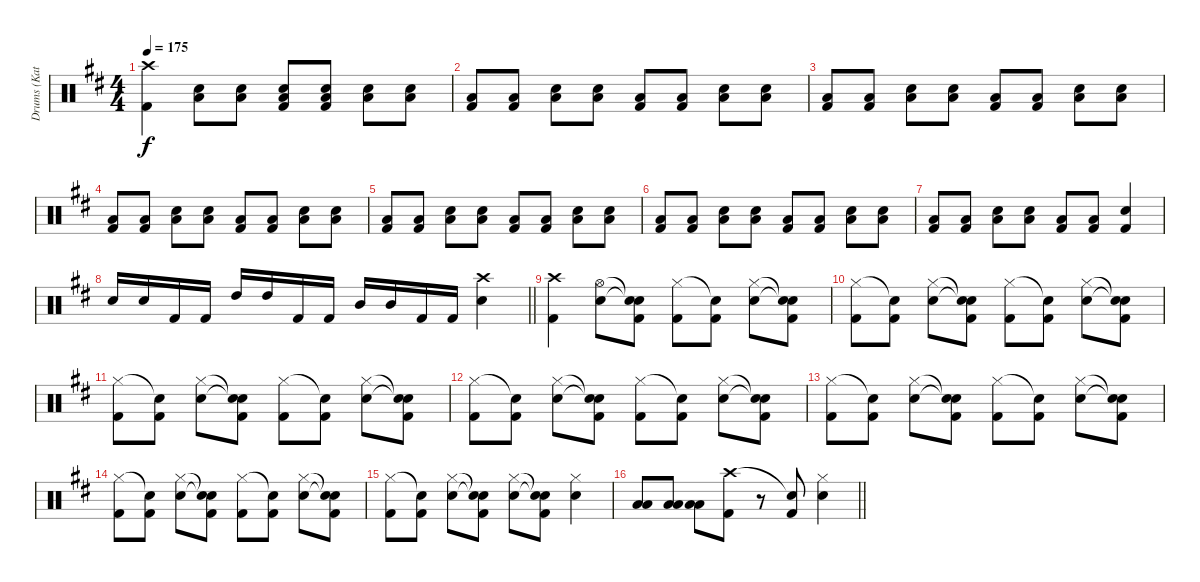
\track ("Drums (Katsuji)" "Drums (Kat") {instrument percussion}
\staff {score}
\articulation defaults
\ts (4 4)
\tempo 175
\clef neutral
\ks d
("Crash high (hit)" "Kick (hit) 2").4{dy f} ("Snare (hit) 2" "Low Tom (hit)").8 ("Snare (hit) 2" "Low Tom (hit)").8 ("Snare (hit) 2" "Low Tom (hit)" "Kick (hit) 2").8 ("Snare (hit) 2" "Low Tom (hit)" "Kick (hit) 2").8 ("Snare (hit) 2" "Low Tom (hit)").8 ("Snare (hit) 2" "Low Tom (hit)").8 |
("Low Tom (hit)" "Kick (hit) 2").8 ("Low Tom (hit)" "Kick (hit) 2").8 ("Snare (hit) 2" "Low Tom (hit)").8 ("Snare (hit) 2" "Low Tom (hit)").8 ("Low Tom (hit)" "Kick (hit) 2").8 ("Low Tom (hit)" "Kick (hit) 2").8 ("Snare (hit) 2" "Low Tom (hit)").8 ("Snare (hit) 2" "Low Tom (hit)").8 |
("Low Tom (hit)" "Kick (hit) 2").8 ("Low Tom (hit)" "Kick (hit) 2").8 ("Snare (hit) 2" "Low Tom (hit)").8 ("Snare (hit) 2" "Low Tom (hit)").8 ("Low Tom (hit)" "Kick (hit) 2").8 ("Low Tom (hit)" "Kick (hit) 2").8 ("Snare (hit) 2" "Low Tom (hit)").8 ("Snare (hit) 2" "Low Tom (hit)").8 |
("Low Tom (hit)" "Kick (hit) 2").8 ("Low Tom (hit)" "Kick (hit) 2").8 ("Snare (hit) 2" "Low Tom (hit)").8 ("Snare (hit) 2" "Low Tom (hit)").8 ("Low Tom (hit)" "Kick (hit) 2").8 ("Low Tom (hit)" "Kick (hit) 2").8 ("Snare (hit) 2" "Low Tom (hit)").8 ("Snare (hit) 2" "Low Tom (hit)").8 |
("Low Tom (hit)" "Kick (hit) 2").8 ("Low Tom (hit)" "Kick (hit) 2").8 ("Snare (hit) 2" "Low Tom (hit)").8 ("Snare (hit) 2" "Low Tom (hit)").8 ("Low Tom (hit)" "Kick (hit) 2").8 ("Low Tom (hit)" "Kick (hit) 2").8 ("Snare (hit) 2" "Low Tom (hit)").8 ("Snare (hit) 2" "Low Tom (hit)").8 |
("Low Tom (hit)" "Kick (hit) 2").8 ("Low Tom (hit)" "Kick (hit) 2").8 ("Snare (hit) 2" "Low Tom (hit)").8 ("Snare (hit) 2" "Low Tom (hit)").8 ("Low Tom (hit)" "Kick (hit) 2").8 ("Low Tom (hit)" "Kick (hit) 2").8 ("Snare (hit) 2" "Low Tom (hit)").8 ("Snare (hit) 2" "Low Tom (hit)").8 |
("Low Tom (hit)" "Kick (hit) 2").8 ("Low Tom (hit)" "Kick (hit) 2").8 ("Snare (hit) 2" "Low Tom (hit)").8 ("Snare (hit) 2" "Low Tom (hit)").8 ("Low Tom (hit)" "Kick (hit) 2").8 ("Low Tom (hit)" "Kick (hit) 2").8 ("Snare (hit) 2" "Kick (hit) 2").4 |
\barLineRight lightlight "Snare (hit) 2".16 "Snare (hit) 2".16 "Kick (hit) 2".16 "Kick (hit) 2".16 "High Tom (hit)".16 "High Tom (hit)".16 "Kick (hit) 2".16 "Kick (hit) 2".16 "Mid Tom (hit)".16 "Mid Tom (hit)".16 "Kick (hit) 2".16 "Kick (hit) 2".16
("Crash high (hit)" "Snare (hit) 2").4 |
("Crash high (hit)" "Kick (hit) 2").4 ("Hi-Hat (open)" "Snare (hit) 2").8 ("Snare (hit)"{t} "Snare (hit)"{t} "Kick (hit) 2").8 ("Hi-Hat (closed)" "Kick (hit) 2").8 ("Snare (hit)"{t} "Kick (hit) 2").8 ("Hi-Hat (closed)" "Snare (hit) 2").8 ("Snare (hit)"{t} "Snare (hit)"{t} "Kick (hit) 2").8 |
("Hi-Hat (closed)" "Kick (hit) 2").8 ("Snare (hit)"{t} "Kick (hit) 2").8 ("Hi-Hat (closed)" "Snare (hit) 2").8 ("Snare (hit)"{t} "Snare (hit)"{t} "Kick (hit) 2").8 ("Hi-Hat (closed)" "Kick (hit) 2").8 ("Snare (hit)"{t} "Kick (hit) 2").8 ("Hi-Hat (closed)" "Snare (hit) 2").8 ("Snare (hit)"{t} "Snare (hit)"{t} "Kick (hit) 2").8 |
("Hi-Hat (closed)" "Kick (hit) 2").8 ("Snare (hit)"{t} "Kick (hit) 2").8 ("Hi-Hat (closed)" "Snare (hit) 2").8 ("Snare (hit)"{t} "Snare (hit)"{t} "Kick (hit) 2").8 ("Hi-Hat (closed)" "Kick (hit) 2").8 ("Snare (hit)"{t} "Kick (hit) 2").8 ("Hi-Hat (closed)" "Snare (hit) 2").8 ("Snare (hit)"{t} "Snare (hit)"{t} "Kick (hit) 2").8 |
("Hi-Hat (closed)" "Kick (hit) 2").8 ("Snare (hit)"{t} "Kick (hit) 2").8 ("Hi-Hat (closed)" "Snare (hit) 2").8 ("Snare (hit)"{t} "Snare (hit)"{t} "Kick (hit) 2").8 ("Hi-Hat (closed)" "Kick (hit) 2").8 ("Snare (hit)"{t} "Kick (hit) 2").8 ("Hi-Hat (closed)" "Snare (hit) 2").8 ("Snare (hit)"{t} "Snare (hit)"{t} "Kick (hit) 2").8 |
("Hi-Hat (closed)" "Kick (hit) 2").8 ("Snare (hit)"{t} "Kick (hit) 2").8 ("Hi-Hat (closed)" "Snare (hit) 2").8 ("Snare (hit)"{t} "Snare (hit)"{t} "Kick (hit) 2").8 ("Hi-Hat (closed)" "Kick (hit) 2").8 ("Snare (hit)"{t} "Kick (hit) 2").8 ("Hi-Hat (closed)" "Snare (hit) 2").8 ("Snare (hit)"{t} "Snare (hit)"{t} "Kick (hit) 2").8 |
("Hi-Hat (closed)" "Kick (hit) 2").8 ("Snare (hit)"{t} "Kick (hit) 2").8 ("Hi-Hat (closed)" "Snare (hit) 2").8 ("Snare (hit)"{t} "Snare (hit)"{t} "Kick (hit) 2").8 ("Hi-Hat (closed)" "Kick (hit) 2").8 ("Snare (hit)"{t} "Kick (hit) 2").8 ("Hi-Hat (closed)" "Snare (hit) 2").8 ("Snare (hit)"{t} "Snare (hit)"{t} "Kick (hit) 2").8 |
("Hi-Hat (closed)" "Kick (hit) 2").8 ("Snare (hit)"{t} "Kick (hit) 2").8 ("Hi-Hat (closed)" "Snare (hit) 2").8 ("Snare (hit)"{t} "Snare (hit)"{t} "Kick (hit) 2").8 ("Hi-Hat (closed)" "Snare (hit) 2").8 ("Snare (hit)"{t} "Snare (hit)"{t} "Kick (hit) 2").8 ("Hi-Hat (closed)" "Snare (hit) 2").4 |
\barLineRight lightlight
("Low Tom (hit)" "Low Tom (hit)").8 ("Low Tom (hit)" "Low Tom (hit)").8 ("Low Tom (hit)" "Low Tom (hit)").8 ("Crash high (hit)" "Kick (hit) 2").8 r.8 ("Snare (hit)"{t} "Kick (hit) 2").8 ("Hi-Hat (closed)" "Snare (hit) 2").4
